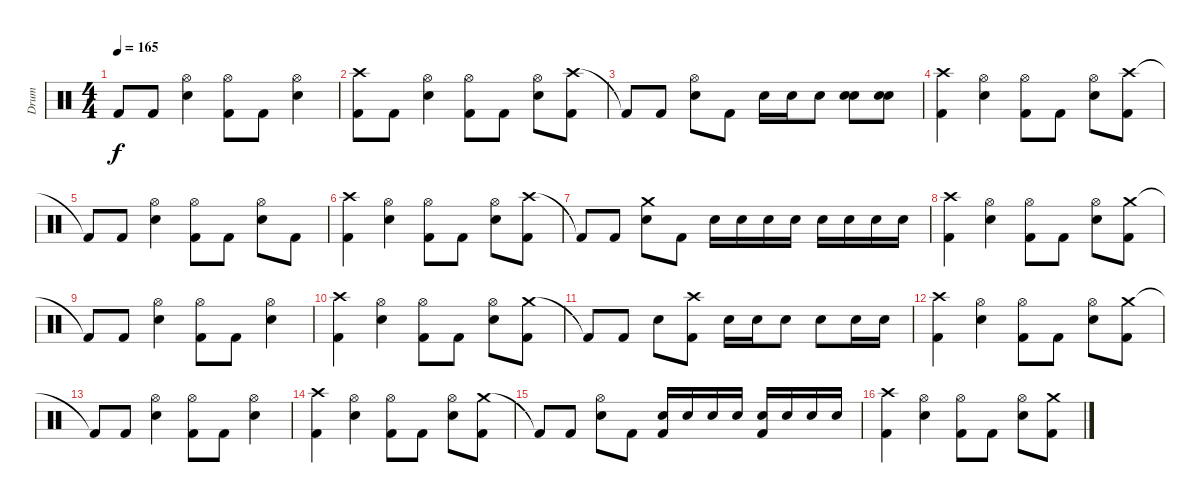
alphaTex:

\track ("Drum" "Drum") {instrument percussion}
\staff {score}
\articulation defaults
\ts (4 4)
\tempo 165
\clef neutral
\ks c "Kick (hit) 2"{t}.8{dy f} "Kick (hit) 2".8
("Hi-Hat (open)" "Electric Snare (hit)").4 ("Hi-Hat (open)" "Kick (hit) 2").8 "Kick (hit) 2".8 ("Hi-Hat (open)" "Electric Snare (hit)").4 |
("Crash high (hit)" "Kick (hit) 2").8 "Kick (hit) 2".8 ("Hi-Hat (open)" "Electric Snare (hit)").4 ("Hi-Hat (open)" "Kick (hit) 2").8 "Kick (hit) 2".8 ("Hi-Hat (open)" "Electric Snare (hit)").8 ("Crash high (hit)" "Kick (hit) 2").8 |
"Kick (hit) 2"{t}.8 "Kick (hit) 2".8 ("Hi-Hat (open)" "Electric Snare (hit)").8 "Kick (hit) 2".8 "Electric Snare (hit)".16 "Electric Snare (hit)".16 "Electric Snare (hit)".8 ("Electric Snare (hit)" "Electric Snare (hit)").8 ("Electric Snare (hit)" "Electric Snare (hit)").8 |
("Crash high (hit)" "Kick (hit) 2").4 ("Hi-Hat (open)" "Electric Snare (hit)").4 ("Hi-Hat (open)" "Kick (hit) 2").8 "Kick (hit) 2".8 ("Hi-Hat (open)" "Electric Snare (hit)").8 ("Crash high (hit)" "Kick (hit) 2").8 |
"Kick (hit) 2"{t}.8 "Kick (hit) 2".8 ("Hi-Hat (open)" "Electric Snare (hit)").4 ("Hi-Hat (open)" "Kick (hit) 2").8 "Kick (hit) 2".8 ("Hi-Hat (open)" "Electric Snare (hit)").8 "Kick (hit) 2".8 |
("Crash high (hit)" "Kick (hit) 2").4 ("Hi-Hat (open)" "Electric Snare (hit)").4 ("Hi-Hat (open)" "Kick (hit) 2").8 "Kick (hit) 2".8 ("Hi-Hat (open)" "Electric Snare (hit)").8 ("Crash high (hit)" "Kick (hit) 2").8 |
"Kick (hit) 2"{t}.8 "Kick (hit) 2".8 ("Crash medium (hit)" "Electric Snare (hit)").8 "Kick (hit) 2".8 "Electric Snare (hit)".16 "Electric Snare (hit)".16 "Electric Snare (hit)".16 "Electric Snare (hit)".16 "Electric Snare (hit)".16 "Electric Snare (hit)".16 "Electric Snare (hit)".16 "Electric Snare (hit)".16 |
("Crash high (hit)" "Kick (hit) 2").4 ("Hi-Hat (open)" "Electric Snare (hit)").4 ("Hi-Hat (open)" "Kick (hit) 2").8 "Kick (hit) 2".8 ("Hi-Hat (open)" "Electric Snare (hit)").8 ("Crash medium (hit)" "Kick (hit) 2").8 |
"Kick (hit) 2"{t}.8 "Kick (hit) 2".8 ("Hi-Hat (open)" "Electric Snare (hit)").4 ("Hi-Hat (open)" "Kick (hit) 2").8 "Kick (hit) 2".8 ("Hi-Hat (open)" "Electric Snare (hit)").4 |
("Crash high (hit)" "Kick (hit) 2").4 ("Hi-Hat (open)" "Electric Snare (hit)").4 ("Hi-Hat (open)" "Kick (hit) 2").8 "Kick (hit) 2".8 ("Hi-Hat (open)" "Electric Snare (hit)").8 ("Crash medium (hit)" "Kick (hit) 2").8 |
"Kick (hit) 2"{t}.8 "Kick (hit) 2".8 "Electric Snare (hit)".8 ("Crash high (hit)" "Kick (hit) 2").8 "Electric Snare (hit)".16 "Electric Snare (hit)".16 "Electric Snare (hit)".8 "Electric Snare (hit)".8 "Electric Snare (hit)".16 "Electric Snare (hit)".16 |
("Crash high (hit)" "Kick (hit) 2").4 ("Hi-Hat (open)" "Electric Snare (hit)").4 ("Hi-Hat (open)" "Kick (hit) 2").8 "Kick (hit) 2".8 ("Hi-Hat (open)" "Electric Snare (hit)").8 ("Crash medium (hit)" "Kick (hit) 2").8 |
"Kick (hit) 2"{t}.8 "Kick (hit) 2".8 ("Hi-Hat (open)" "Electric Snare (hit)").4 ("Hi-Hat (open)" "Kick (hit) 2").8 "Kick (hit) 2".8 ("Hi-Hat (open)" "Electric Snare (hit)").4 |
("Crash high (hit)" "Kick (hit) 2").4 ("Hi-Hat (open)" "Electric Snare (hit)").4 ("Hi-Hat (open)" "Kick (hit) 2").8 "Kick (hit) 2".8 ("Hi-Hat (open)" "Electric Snare (hit)").8 ("Crash medium (hit)" "Kick (hit) 2").8 |
"Kick (hit) 2"{t}.8 "Kick (hit) 2".8 ("Hi-Hat (open)" "Electric Snare (hit)").8 "Kick (hit) 2".8 ("Electric Snare (hit)" "Kick (hit) 2").16 "Electric Snare (hit)".16 "Electric Snare (hit)".16 "Electric Snare (hit)".16 ("Electric Snare (hit)" "Kick (hit) 2").16 "Electric Snare (hit)".16 "Electric Snare (hit)".16 "Electric Snare (hit)".16 |
("Crash high (hit)" "Kick (hit) 2").4 ("Hi-Hat (open)" "Electric Snare (hit)").4 ("Hi-Hat (open)" "Kick (hit) 2").8 "Kick (hit) 2".8 ("Hi-Hat (open)" "Electric Snare (hit)").8 ("Crash medium (hit)" "Kick (hit) 2").8
